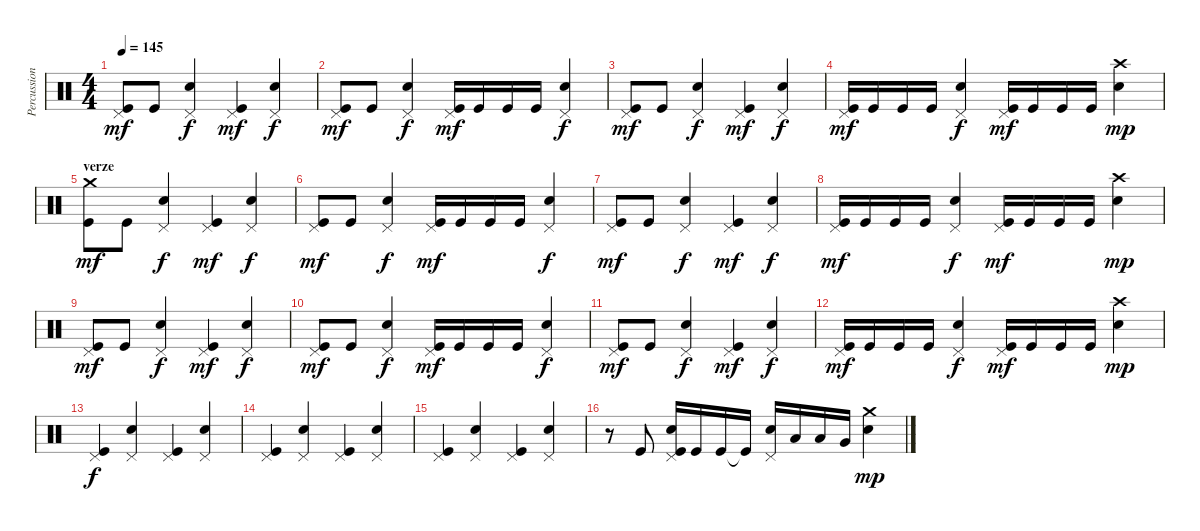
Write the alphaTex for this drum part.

\track ("Percussion" "Percussion") {instrument percussion}
\staff {score}
\articulation defaults
\ts (4 4)
\tempo 145
\clef neutral
\ks c
("Pedal Hi-Hat (hit)" "Kick (hit)").8{dy mf} "Kick (hit)".8 ("Pedal Hi-Hat (hit)" "Electric Snare (hit)").4{dy f} ("Pedal Hi-Hat (hit)" "Kick (hit)").4{dy mf} ("Pedal Hi-Hat (hit)" "Electric Snare (hit)").4{dy f} |
("Pedal Hi-Hat (hit)" "Kick (hit)").8{dy mf} "Kick (hit)".8 ("Pedal Hi-Hat (hit)" "Electric Snare (hit)").4{dy f} ("Pedal Hi-Hat (hit)" "Kick (hit)").16{dy mf} "Kick (hit)".16 "Kick (hit)".16 "Kick (hit)".16 ("Pedal Hi-Hat (hit)" "Electric Snare (hit)").4{dy f} |
("Pedal Hi-Hat (hit)" "Kick (hit)").8{dy mf} "Kick (hit)".8 ("Pedal Hi-Hat (hit)" "Electric Snare (hit)").4{dy f} ("Pedal Hi-Hat (hit)" "Kick (hit)").4{dy mf} ("Pedal Hi-Hat (hit)" "Electric Snare (hit)").4{dy f} |
("Pedal Hi-Hat (hit)" "Kick (hit)").16{dy mf} "Kick (hit)".16 "Kick (hit)".16 "Kick (hit)".16 ("Pedal Hi-Hat (hit)" "Electric Snare (hit)").4{dy f} ("Pedal Hi-Hat (hit)" "Kick (hit)").16{dy mf} "Kick (hit)".16 "Kick (hit)".16 "Kick (hit)".16 ("Crash high (hit)" "Electric Snare (hit)").4{dy mp} |
\section ("" "verze")
("Crash medium (hit)" "Kick (hit)").8{dy mf} "Kick (hit)".8 ("Pedal Hi-Hat (hit)" "Electric Snare (hit)").4{dy f} ("Pedal Hi-Hat (hit)" "Kick (hit)").4{dy mf} ("Pedal Hi-Hat (hit)" "Electric Snare (hit)").4{dy f} |
("Pedal Hi-Hat (hit)" "Kick (hit)").8{dy mf} "Kick (hit)".8 ("Pedal Hi-Hat (hit)" "Electric Snare (hit)").4{dy f} ("Pedal Hi-Hat (hit)" "Kick (hit)").16{dy mf} "Kick (hit)".16 "Kick (hit)".16 "Kick (hit)".16 ("Pedal Hi-Hat (hit)" "Electric Snare (hit)").4{dy f} |
("Pedal Hi-Hat (hit)" "Kick (hit)").8{dy mf} "Kick (hit)".8 ("Pedal Hi-Hat (hit)" "Electric Snare (hit)").4{dy f} ("Pedal Hi-Hat (hit)" "Kick (hit)").4{dy mf} ("Pedal Hi-Hat (hit)" "Electric Snare (hit)").4{dy f} |
("Pedal Hi-Hat (hit)" "Kick (hit)").16{dy mf} "Kick (hit)".16 "Kick (hit)".16 "Kick (hit)".16 ("Pedal Hi-Hat (hit)" "Electric Snare (hit)").4{dy f} ("Pedal Hi-Hat (hit)" "Kick (hit)").16{dy mf} "Kick (hit)".16 "Kick (hit)".16 "Kick (hit)".16 ("Crash high (hit)" "Electric Snare (hit)").4{dy mp} |
("Pedal Hi-Hat (hit)" "Kick (hit)").8{dy mf} "Kick (hit)".8 ("Pedal Hi-Hat (hit)" "Electric Snare (hit)").4{dy f} ("Pedal Hi-Hat (hit)" "Kick (hit)").4{dy mf} ("Pedal Hi-Hat (hit)" "Electric Snare (hit)").4{dy f} |
("Pedal Hi-Hat (hit)" "Kick (hit)").8{dy mf} "Kick (hit)".8 ("Pedal Hi-Hat (hit)" "Electric Snare (hit)").4{dy f} ("Pedal Hi-Hat (hit)" "Kick (hit)").16{dy mf} "Kick (hit)".16 "Kick (hit)".16 "Kick (hit)".16 ("Pedal Hi-Hat (hit)" "Electric Snare (hit)").4{dy f} |
("Pedal Hi-Hat (hit)" "Kick (hit)").8{dy mf} "Kick (hit)".8 ("Pedal Hi-Hat (hit)" "Electric Snare (hit)").4{dy f} ("Pedal Hi-Hat (hit)" "Kick (hit)").4{dy mf} ("Pedal Hi-Hat (hit)" "Electric Snare (hit)").4{dy f} |
("Pedal Hi-Hat (hit)" "Kick (hit)").16{dy mf} "Kick (hit)".16 "Kick (hit)".16 "Kick (hit)".16 ("Pedal Hi-Hat (hit)" "Electric Snare (hit)").4{dy f} ("Pedal Hi-Hat (hit)" "Kick (hit)").16{dy mf} "Kick (hit)".16 "Kick (hit)".16 "Kick (hit)".16 ("Crash high (hit)" "Electric Snare (hit)").4{dy mp} |
("Pedal Hi-Hat (hit)" "Kick (hit)").4{dy f} ("Pedal Hi-Hat (hit)" "Electric Snare (hit)").4 ("Pedal Hi-Hat (hit)" "Kick (hit)").4 ("Pedal Hi-Hat (hit)" "Electric Snare (hit)").4 |
("Pedal Hi-Hat (hit)" "Kick (hit)").4 ("Pedal Hi-Hat (hit)" "Electric Snare (hit)").4 ("Pedal Hi-Hat (hit)" "Kick (hit)").4 ("Pedal Hi-Hat (hit)" "Electric Snare (hit)").4 |
("Pedal Hi-Hat (hit)" "Kick (hit)").4 ("Pedal Hi-Hat (hit)" "Electric Snare (hit)").4 ("Pedal Hi-Hat (hit)" "Kick (hit)").4 ("Pedal Hi-Hat (hit)" "Electric Snare (hit)").4 |
r.8 "Kick (hit)".8 ("Pedal Hi-Hat (hit)" "Kick (hit)" "Electric Snare (hit)").16 "Kick (hit)".16 "Kick (hit)".16 "Kick (hit)"{t}.16 ("Pedal Hi-Hat (hit)" "Electric Snare (hit)").16 "Low Tom (hit)".16 "Low Tom (hit)".16 "Very Low Tom (hit)".16 ("Crash medium (hit)" "Electric Snare (hit)").4{dy mp}
